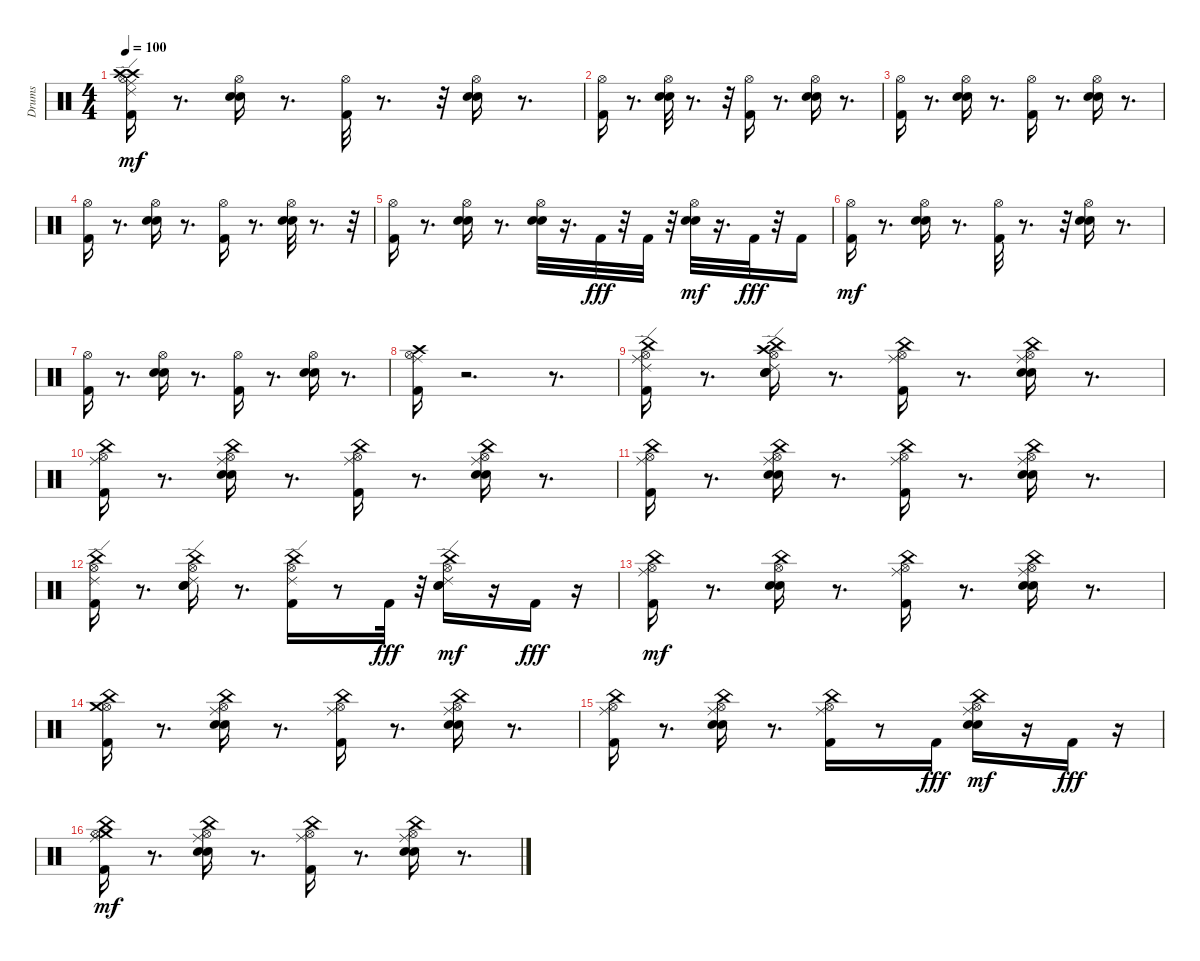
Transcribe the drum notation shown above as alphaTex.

\track ("Drums" "Drums") {instrument percussion}
\staff {score}
\articulation defaults
\ts (4 4)
\tempo 100
\clef neutral
\ks c
("Crash high (hit)" "Kick (hit) 2" "Hi-Hat (open)" "Crash high (hit)" "Ride (edge) 2" "Ride (middle)").16{dy mf} r.8{d} ("Electric Snare (hit)" "Snare (hit) 2" "Hi-Hat (open)").16 r.8{d} ("Kick (hit) 2" "Hi-Hat (open)").32 r.8{d} r.32 ("Electric Snare (hit)" "Snare (hit) 2" "Hi-Hat (open)").16 r.8{d} |
("Kick (hit) 2" "Hi-Hat (open)").16 r.8{d} ("Electric Snare (hit)" "Snare (hit) 2" "Hi-Hat (open)").32 r.8{d} r.32 ("Kick (hit) 2" "Hi-Hat (open)").16 r.8{d} ("Electric Snare (hit)" "Snare (hit) 2" "Hi-Hat (open)").16 r.8{d} |
("Kick (hit) 2" "Hi-Hat (open)").16 r.8{d} ("Electric Snare (hit)" "Snare (hit) 2" "Hi-Hat (open)").16 r.8{d} ("Kick (hit) 2" "Hi-Hat (open)").16 r.8{d} ("Electric Snare (hit)" "Snare (hit) 2" "Hi-Hat (open)").16 r.8{d} |
("Kick (hit) 2" "Hi-Hat (open)").16 r.8{d} ("Electric Snare (hit)" "Snare (hit) 2" "Hi-Hat (open)").16 r.8{d} ("Kick (hit) 2" "Hi-Hat (open)").16 r.8{d} ("Electric Snare (hit)" "Snare (hit) 2" "Hi-Hat (open)").32 r.8{d} r.32 |
("Kick (hit) 2" "Hi-Hat (open)").16 r.8{d} ("Electric Snare (hit)" "Snare (hit) 2" "Hi-Hat (open)").16 r.8{d} ("Electric Snare (hit)" "Snare (hit) 2" "Hi-Hat (open)").32 r.16{d} "Kick (hit) 2".32{dy fff} r.32 "Kick (hit) 2".32 r.32 ("Electric Snare (hit)" "Snare (hit) 2" "Hi-Hat (open)").32{dy mf} r.16{d} "Kick (hit) 2".32{dy fff} r.32 "Kick (hit) 2".16 |
("Kick (hit) 2" "Hi-Hat (open)").16{dy mf} r.8{d} ("Electric Snare (hit)" "Snare (hit) 2" "Hi-Hat (open)").16 r.8{d} ("Kick (hit) 2" "Hi-Hat (open)").32 r.8{d} r.32 ("Electric Snare (hit)" "Snare (hit) 2" "Hi-Hat (open)").16 r.8{d} |
("Kick (hit) 2" "Hi-Hat (open)").16 r.8{d} ("Electric Snare (hit)" "Snare (hit) 2" "Hi-Hat (open)").16 r.8{d} ("Kick (hit) 2" "Hi-Hat (open)").16 r.8{d} ("Electric Snare (hit)" "Snare (hit) 2" "Hi-Hat (open)").16 r.8{d} |
("Kick (hit) 2" "Crash high (hit)" "Hi-Hat (open)" "Ride (middle)").16 r.2{d} r.8{d} |
("Kick (hit) 2" "Ride (middle)" "China (hit)" "Hi-Hat (open)" "Ride (edge) 2").16 r.8{d} ("Electric Snare (hit)" "Crash high (hit)" "Snare (hit) 2" "Hi-Hat (open)" "China (hit)" "Ride (edge) 2").16 r.8{d} ("Kick (hit) 2" "Hi-Hat (open)" "China (hit)" "Ride (middle)").16 r.8{d} ("Electric Snare (hit)" "Snare (hit) 2" "China (hit)" "Hi-Hat (open)" "Ride (middle)").16 r.8{d} |
("Kick (hit) 2" "Hi-Hat (open)" "China (hit)" "Ride (middle)").16 r.8{d} ("Electric Snare (hit)" "Snare (hit) 2" "China (hit)" "Hi-Hat (open)" "Ride (middle)").16 r.8{d} ("Kick (hit) 2" "Hi-Hat (open)" "China (hit)" "Ride (middle)").16 r.8{d} ("Electric Snare (hit)" "Snare (hit) 2" "Hi-Hat (open)" "China (hit)" "Ride (middle)").16 r.8{d} |
("Kick (hit) 2" "Hi-Hat (open)" "China (hit)" "Ride (middle)").16 r.8{d} ("Electric Snare (hit)" "Snare (hit) 2" "Hi-Hat (open)" "China (hit)" "Ride (middle)").16 r.8{d} ("Kick (hit) 2" "China (hit)" "Hi-Hat (open)" "Ride (middle)").16 r.8{d} ("Electric Snare (hit)" "Snare (hit) 2" "Hi-Hat (open)" "China (hit)" "Ride (middle)").16 r.8{d} |
("Kick (hit) 2" "China (hit)" "Hi-Hat (open)" "Ride (edge) 2").16 r.8{d} ("Electric Snare (hit)" "Snare (hit) 2" "China (hit)" "Hi-Hat (open)" "Ride (edge) 2").16 r.8{d} ("Kick (hit) 2" "China (hit)" "Hi-Hat (open)" "Ride (edge) 2").16 r.8 "Kick (hit) 2".32{dy fff} r.32 ("Electric Snare (hit)" "Snare (hit) 2" "Hi-Hat (open)" "China (hit)" "Ride (edge) 2").16{dy mf} r.16 "Kick (hit) 2".16{dy fff} r.16 |
("Kick (hit) 2" "Hi-Hat (open)" "China (hit)" "Ride (middle)").16{dy mf} r.8{d} ("Electric Snare (hit)" "Snare (hit) 2" "China (hit)" "Hi-Hat (open)").16 r.8{d} ("Kick (hit) 2" "Hi-Hat (open)" "China (hit)" "Ride (middle)").16 r.8{d} ("Electric Snare (hit)" "Snare (hit) 2" "Hi-Hat (open)" "China (hit)" "Ride (middle)").16 r.8{d} |
("Kick (hit) 2" "China (hit)" "Hi-Hat (open)" "Crash medium (hit)").16 r.8{d} ("Electric Snare (hit)" "Snare (hit) 2" "China (hit)" "Hi-Hat (open)" "Ride (middle)").16 r.8{d} ("Kick (hit) 2" "China (hit)" "Hi-Hat (open)" "Ride (middle)").16 r.8{d} ("Electric Snare (hit)" "Snare (hit) 2" "China (hit)" "Hi-Hat (open)" "Ride (middle)").16 r.8{d} |
("Kick (hit) 2" "China (hit)" "Hi-Hat (open)" "Ride (middle)").16 r.8{d} ("Electric Snare (hit)" "Snare (hit) 2" "Hi-Hat (open)" "China (hit)" "Ride (middle)").16 r.8{d} ("Kick (hit) 2" "China (hit)" "Hi-Hat (open)" "Ride (middle)").16 r.8 "Kick (hit) 2".16{dy fff} ("Electric Snare (hit)" "Snare (hit) 2" "China (hit)" "Hi-Hat (open)" "Ride (middle)").16{dy mf} r.16 "Kick (hit) 2".16{dy fff} r.16 |
("Kick (hit) 2" "Crash medium (hit)" "China (hit)" "Hi-Hat (open)" "Ride (middle)").16{dy mf} r.8{d} ("Electric Snare (hit)" "Snare (hit) 2" "China (hit)" "Hi-Hat (open)" "Ride (middle)").16 r.8{d} ("Kick (hit) 2" "China (hit)" "Hi-Hat (open)" "Ride (middle)").16 r.8{d} ("Electric Snare (hit)" "Snare (hit) 2" "China (hit)" "Hi-Hat (open)" "Ride (middle)").16 r.8{d}
